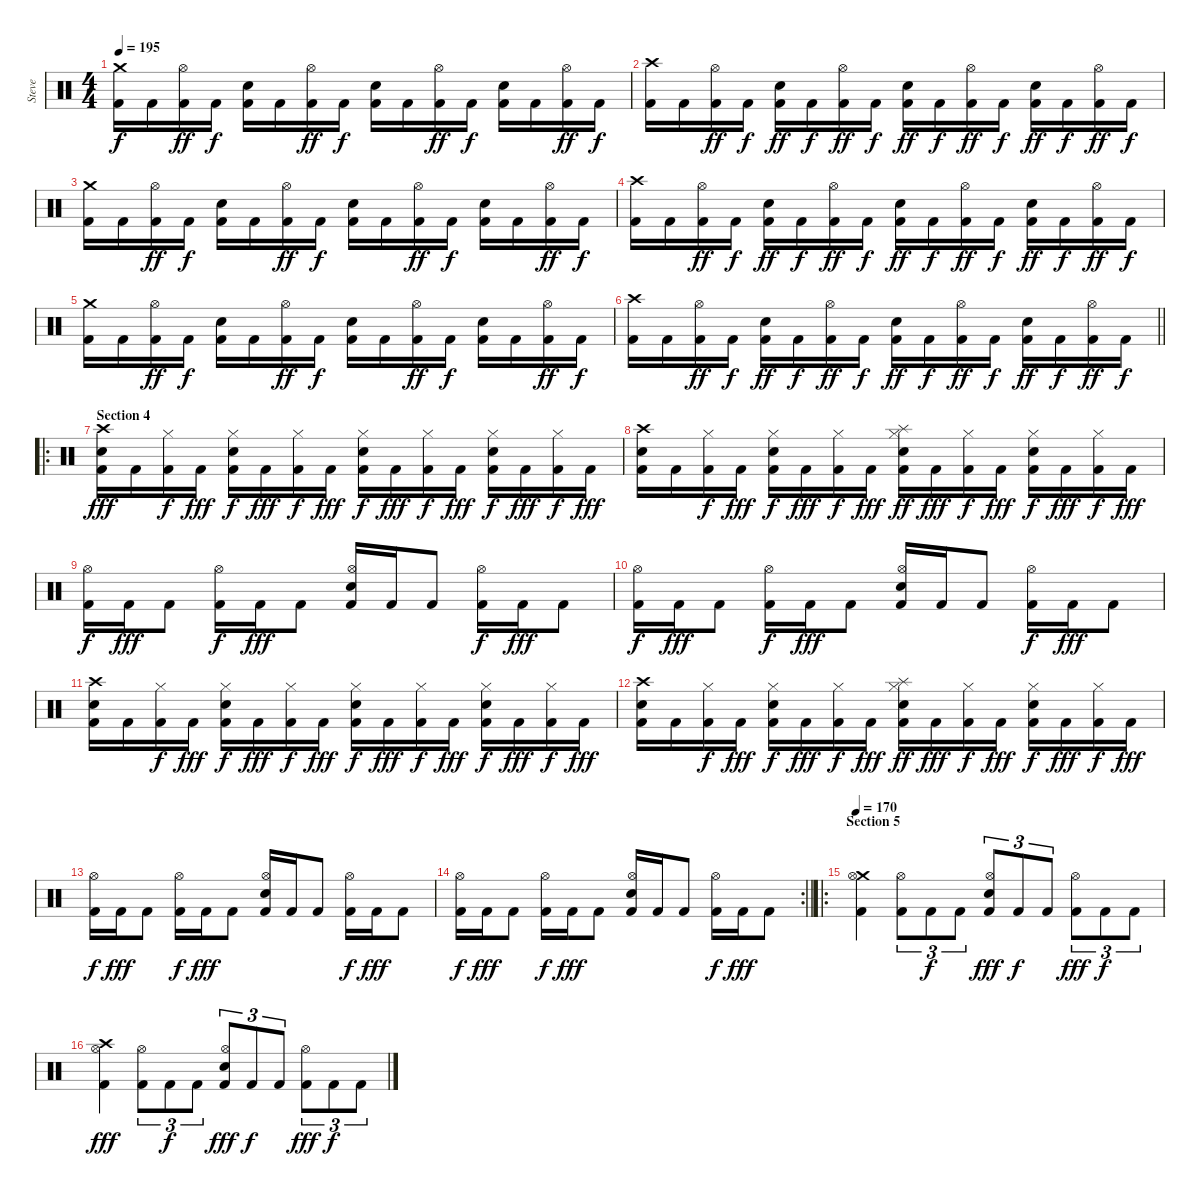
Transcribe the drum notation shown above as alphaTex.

\track ("Steve" "Steve") {instrument percussion}
\staff {score}
\articulation defaults
\ts (4 4)
\tempo 195
\clef neutral
\ks c
("Crash medium (hit)" "Kick (hit) 2").16{dy f} "Kick (hit) 2".16 ("Hi-Hat (open)" "Kick (hit) 2").16{dy ff} "Kick (hit) 2".16{dy f} ("Snare (hit) 2" "Kick (hit) 2").16 "Kick (hit) 2".16 ("Hi-Hat (open)" "Kick (hit) 2").16{dy ff} "Kick (hit) 2".16{dy f} ("Snare (hit) 2" "Kick (hit) 2").16 "Kick (hit) 2".16 ("Hi-Hat (open)" "Kick (hit) 2").16{dy ff} "Kick (hit) 2".16{dy f} ("Snare (hit) 2" "Kick (hit) 2").16 "Kick (hit) 2".16 ("Hi-Hat (open)" "Kick (hit) 2").16{dy ff} "Kick (hit) 2".16{dy f} |
("Crash high (hit)" "Kick (hit) 2").16 "Kick (hit) 2".16 ("Hi-Hat (open)" "Kick (hit) 2").16{dy ff} "Kick (hit) 2".16{dy f} ("Snare (hit) 2" "Kick (hit) 2").16{dy ff} "Kick (hit) 2".16{dy f} ("Hi-Hat (open)" "Kick (hit) 2").16{dy ff} "Kick (hit) 2".16{dy f} ("Snare (hit) 2" "Kick (hit) 2").16{dy ff} "Kick (hit) 2".16{dy f} ("Hi-Hat (open)" "Kick (hit) 2").16{dy ff} "Kick (hit) 2".16{dy f} ("Snare (hit) 2" "Kick (hit) 2").16{dy ff} "Kick (hit) 2".16{dy f} ("Hi-Hat (open)" "Kick (hit) 2").16{dy ff} "Kick (hit) 2".16{dy f} |
("Crash medium (hit)" "Kick (hit) 2").16 "Kick (hit) 2".16 ("Hi-Hat (open)" "Kick (hit) 2").16{dy ff} "Kick (hit) 2".16{dy f} ("Snare (hit) 2" "Kick (hit) 2").16 "Kick (hit) 2".16 ("Hi-Hat (open)" "Kick (hit) 2").16{dy ff} "Kick (hit) 2".16{dy f} ("Snare (hit) 2" "Kick (hit) 2").16 "Kick (hit) 2".16 ("Hi-Hat (open)" "Kick (hit) 2").16{dy ff} "Kick (hit) 2".16{dy f} ("Snare (hit) 2" "Kick (hit) 2").16 "Kick (hit) 2".16 ("Hi-Hat (open)" "Kick (hit) 2").16{dy ff} "Kick (hit) 2".16{dy f} |
("Crash high (hit)" "Kick (hit) 2").16 "Kick (hit) 2".16 ("Hi-Hat (open)" "Kick (hit) 2").16{dy ff} "Kick (hit) 2".16{dy f} ("Snare (hit) 2" "Kick (hit) 2").16{dy ff} "Kick (hit) 2".16{dy f} ("Hi-Hat (open)" "Kick (hit) 2").16{dy ff} "Kick (hit) 2".16{dy f} ("Snare (hit) 2" "Kick (hit) 2").16{dy ff} "Kick (hit) 2".16{dy f} ("Hi-Hat (open)" "Kick (hit) 2").16{dy ff} "Kick (hit) 2".16{dy f} ("Snare (hit) 2" "Kick (hit) 2").16{dy ff} "Kick (hit) 2".16{dy f} ("Hi-Hat (open)" "Kick (hit) 2").16{dy ff} "Kick (hit) 2".16{dy f} |
("Crash medium (hit)" "Kick (hit) 2").16 "Kick (hit) 2".16 ("Hi-Hat (open)" "Kick (hit) 2").16{dy ff} "Kick (hit) 2".16{dy f} ("Snare (hit) 2" "Kick (hit) 2").16 "Kick (hit) 2".16 ("Hi-Hat (open)" "Kick (hit) 2").16{dy ff} "Kick (hit) 2".16{dy f} ("Snare (hit) 2" "Kick (hit) 2").16 "Kick (hit) 2".16 ("Hi-Hat (open)" "Kick (hit) 2").16{dy ff} "Kick (hit) 2".16{dy f} ("Snare (hit) 2" "Kick (hit) 2").16 "Kick (hit) 2".16 ("Hi-Hat (open)" "Kick (hit) 2").16{dy ff} "Kick (hit) 2".16{dy f} |
\barLineRight lightlight
("Crash high (hit)" "Kick (hit) 2").16 "Kick (hit) 2".16 ("Hi-Hat (open)" "Kick (hit) 2").16{dy ff} "Kick (hit) 2".16{dy f} ("Snare (hit) 2" "Kick (hit) 2").16{dy ff} "Kick (hit) 2".16{dy f} ("Hi-Hat (open)" "Kick (hit) 2").16{dy ff} "Kick (hit) 2".16{dy f} ("Snare (hit) 2" "Kick (hit) 2").16{dy ff} "Kick (hit) 2".16{dy f} ("Hi-Hat (open)" "Kick (hit) 2").16{dy ff} "Kick (hit) 2".16{dy f} ("Snare (hit) 2" "Kick (hit) 2").16{dy ff} "Kick (hit) 2".16{dy f} ("Hi-Hat (open)" "Kick (hit) 2").16{dy ff} "Kick (hit) 2".16{dy f} |
\ro
\section ("" "Section 4")
("Snare (hit) 2" "Crash high (hit)" "Kick (hit) 2").16{dy fff} "Kick (hit) 2".16 ("Hi-Hat (closed)" "Kick (hit) 2").16{dy f} "Kick (hit) 2".16{dy fff} ("Snare (hit) 2" "Hi-Hat (closed)" "Kick (hit) 2").16{dy f} "Kick (hit) 2".16{dy fff} ("Hi-Hat (closed)" "Kick (hit) 2").16{dy f} "Kick (hit) 2".16{dy fff} ("Snare (hit) 2" "Hi-Hat (closed)" "Kick (hit) 2").16{dy f} "Kick (hit) 2".16{dy fff} ("Hi-Hat (closed)" "Kick (hit) 2").16{dy f} "Kick (hit) 2".16{dy fff} ("Snare (hit) 2" "Hi-Hat (closed)" "Kick (hit) 2").16{dy f} "Kick (hit) 2".16{dy fff} ("Hi-Hat (closed)" "Kick (hit) 2").16{dy f} "Kick (hit) 2".16{dy fff} |
("Snare (hit) 2" "Crash high (hit)" "Kick (hit) 2").16 "Kick (hit) 2".16 ("Hi-Hat (closed)" "Kick (hit) 2").16{dy f} "Kick (hit) 2".16{dy fff} ("Snare (hit) 2" "Hi-Hat (closed)" "Kick (hit) 2").16{dy f} "Kick (hit) 2".16{dy fff} ("Hi-Hat (closed)" "Kick (hit) 2").16{dy f} "Kick (hit) 2".16{dy fff} ("Snare (hit) 2" "Splash (hit)" "Hi-Hat (closed)" "Kick (hit) 2").16{dy ff} "Kick (hit) 2".16{dy fff} ("Hi-Hat (closed)" "Kick (hit) 2").16{dy f} "Kick (hit) 2".16{dy fff} ("Snare (hit) 2" "Hi-Hat (closed)" "Kick (hit) 2").16{dy f} "Kick (hit) 2".16{dy fff} ("Hi-Hat (closed)" "Kick (hit) 2").16{dy f} "Kick (hit) 2".16{dy fff} |
("Hi-Hat (open)" "Kick (hit) 2").16{dy f} "Kick (hit) 2".16{dy fff} "Kick (hit) 2".8 ("Hi-Hat (open)" "Kick (hit) 2").16{dy f} "Kick (hit) 2".16{dy fff} "Kick (hit) 2".8 ("Snare (hit) 2" "Hi-Hat (open)" "Kick (hit) 2").16 "Kick (hit) 2".16 "Kick (hit) 2".8 ("Hi-Hat (open)" "Kick (hit) 2").16{dy f} "Kick (hit) 2".16{dy fff} "Kick (hit) 2".8 |
("Hi-Hat (open)" "Kick (hit) 2").16{dy f} "Kick (hit) 2".16{dy fff} "Kick (hit) 2".8 ("Hi-Hat (open)" "Kick (hit) 2").16{dy f} "Kick (hit) 2".16{dy fff} "Kick (hit) 2".8 ("Snare (hit) 2" "Hi-Hat (open)" "Kick (hit) 2").16 "Kick (hit) 2".16 "Kick (hit) 2".8 ("Hi-Hat (open)" "Kick (hit) 2").16{dy f} "Kick (hit) 2".16{dy fff} "Kick (hit) 2".8 |
("Snare (hit) 2" "Crash high (hit)" "Kick (hit) 2").16 "Kick (hit) 2".16 ("Hi-Hat (closed)" "Kick (hit) 2").16{dy f} "Kick (hit) 2".16{dy fff} ("Snare (hit) 2" "Hi-Hat (closed)" "Kick (hit) 2").16{dy f} "Kick (hit) 2".16{dy fff} ("Hi-Hat (closed)" "Kick (hit) 2").16{dy f} "Kick (hit) 2".16{dy fff} ("Snare (hit) 2" "Hi-Hat (closed)" "Kick (hit) 2").16{dy f} "Kick (hit) 2".16{dy fff} ("Hi-Hat (closed)" "Kick (hit) 2").16{dy f} "Kick (hit) 2".16{dy fff} ("Snare (hit) 2" "Hi-Hat (closed)" "Kick (hit) 2").16{dy f} "Kick (hit) 2".16{dy fff} ("Hi-Hat (closed)" "Kick (hit) 2").16{dy f} "Kick (hit) 2".16{dy fff} |
("Snare (hit) 2" "Crash high (hit)" "Kick (hit) 2").16 "Kick (hit) 2".16 ("Hi-Hat (closed)" "Kick (hit) 2").16{dy f} "Kick (hit) 2".16{dy fff} ("Snare (hit) 2" "Hi-Hat (closed)" "Kick (hit) 2").16{dy f} "Kick (hit) 2".16{dy fff} ("Hi-Hat (closed)" "Kick (hit) 2").16{dy f} "Kick (hit) 2".16{dy fff} ("Snare (hit) 2" "Splash (hit)" "Hi-Hat (closed)" "Kick (hit) 2").16{dy ff} "Kick (hit) 2".16{dy fff} ("Hi-Hat (closed)" "Kick (hit) 2").16{dy f} "Kick (hit) 2".16{dy fff} ("Snare (hit) 2" "Hi-Hat (closed)" "Kick (hit) 2").16{dy f} "Kick (hit) 2".16{dy fff} ("Hi-Hat (closed)" "Kick (hit) 2").16{dy f} "Kick (hit) 2".16{dy fff} |
("Hi-Hat (open)" "Kick (hit) 2").16{dy f} "Kick (hit) 2".16{dy fff} "Kick (hit) 2".8 ("Hi-Hat (open)" "Kick (hit) 2").16{dy f} "Kick (hit) 2".16{dy fff} "Kick (hit) 2".8 ("Snare (hit) 2" "Hi-Hat (open)" "Kick (hit) 2").16 "Kick (hit) 2".16 "Kick (hit) 2".8 ("Hi-Hat (open)" "Kick (hit) 2").16{dy f} "Kick (hit) 2".16{dy fff} "Kick (hit) 2".8 |
\rc 2
\barLineRight lightlight
("Hi-Hat (open)" "Kick (hit) 2").16{dy f} "Kick (hit) 2".16{dy fff} "Kick (hit) 2".8 ("Hi-Hat (open)" "Kick (hit) 2").16{dy f} "Kick (hit) 2".16{dy fff} "Kick (hit) 2".8 ("Snare (hit) 2" "Hi-Hat (open)" "Kick (hit) 2").16 "Kick (hit) 2".16 "Kick (hit) 2".8 ("Hi-Hat (open)" "Kick (hit) 2").16{dy f} "Kick (hit) 2".16{dy fff} "Kick (hit) 2".8 |
\ro
\section ("" "Section 5")
\tempo 170
("Crash medium (hit)" "Hi-Hat (open)" "Kick (hit) 2").4 ("Hi-Hat (open)" "Kick (hit) 2").8{tu (3 2)} "Kick (hit) 2".8{tu (3 2) dy f} "Kick (hit) 2".8{tu (3 2)} ("Snare (hit) 2" "Hi-Hat (open)" "Kick (hit) 2").8{tu (3 2) dy fff} "Kick (hit) 2".8{tu (3 2) dy f} "Kick (hit) 2".8{tu (3 2)} ("Hi-Hat (open)" "Kick (hit) 2").8{tu (3 2) dy fff} "Kick (hit) 2".8{tu (3 2) dy f} "Kick (hit) 2".8{tu (3 2)} |
("Crash high (hit)" "Hi-Hat (open)" "Kick (hit) 2").4{dy fff} ("Hi-Hat (open)" "Kick (hit) 2").8{tu (3 2)} "Kick (hit) 2".8{tu (3 2) dy f} "Kick (hit) 2".8{tu (3 2)} ("Snare (hit) 2" "Hi-Hat (open)" "Kick (hit) 2").8{tu (3 2) dy fff} "Kick (hit) 2".8{tu (3 2) dy f} "Kick (hit) 2".8{tu (3 2)} ("Hi-Hat (open)" "Kick (hit) 2").8{tu (3 2) dy fff} "Kick (hit) 2".8{tu (3 2) dy f} "Kick (hit) 2".8{tu (3 2)}
